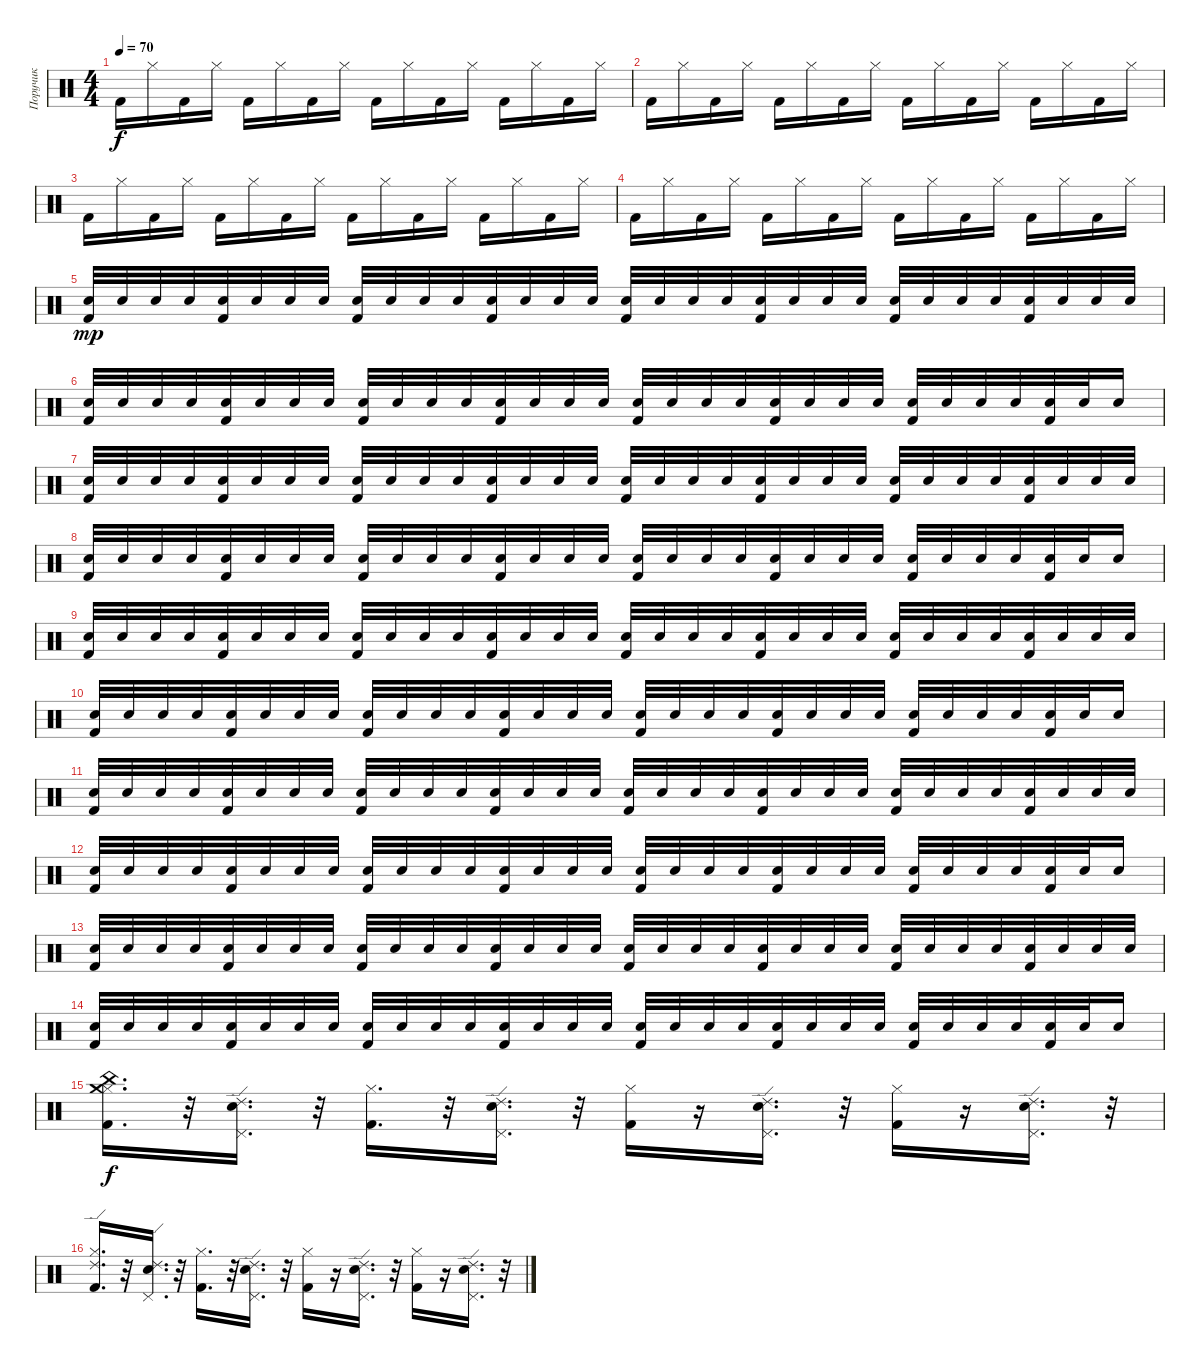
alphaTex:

\track ("Поручик" "Поручик") {instrument percussion}
\staff {score}
\articulation defaults
\ts (4 4)
\tempo 70
\clef neutral
\ks c "Kick (hit) 2".16{dy f} "Hi-Hat (closed)".16 "Kick (hit) 2".16 "Hi-Hat (closed)".16 "Kick (hit) 2".16 "Hi-Hat (closed)".16 "Kick (hit) 2".16 "Hi-Hat (closed)".16 "Kick (hit) 2".16 "Hi-Hat (closed)".16 "Kick (hit) 2".16 "Hi-Hat (closed)".16 "Kick (hit) 2".16 "Hi-Hat (closed)".16 "Kick (hit) 2".16 "Hi-Hat (closed)".16
|
"Kick (hit) 2".16 "Hi-Hat (closed)".16 "Kick (hit) 2".16 "Hi-Hat (closed)".16 "Kick (hit) 2".16 "Hi-Hat (closed)".16 "Kick (hit) 2".16 "Hi-Hat (closed)".16 "Kick (hit) 2".16 "Hi-Hat (closed)".16 "Kick (hit) 2".16 "Hi-Hat (closed)".16 "Kick (hit) 2".16 "Hi-Hat (closed)".16 "Kick (hit) 2".16 "Hi-Hat (closed)".16 |
"Kick (hit) 2".16 "Hi-Hat (closed)".16 "Kick (hit) 2".16 "Hi-Hat (closed)".16 "Kick (hit) 2".16 "Hi-Hat (closed)".16 "Kick (hit) 2".16 "Hi-Hat (closed)".16 "Kick (hit) 2".16 "Hi-Hat (closed)".16 "Kick (hit) 2".16 "Hi-Hat (closed)".16 "Kick (hit) 2".16 "Hi-Hat (closed)".16 "Kick (hit) 2".16 "Hi-Hat (closed)".16 |
"Kick (hit) 2".16 "Hi-Hat (closed)".16 "Kick (hit) 2".16 "Hi-Hat (closed)".16 "Kick (hit) 2".16 "Hi-Hat (closed)".16 "Kick (hit) 2".16 "Hi-Hat (closed)".16 "Kick (hit) 2".16 "Hi-Hat (closed)".16 "Kick (hit) 2".16 "Hi-Hat (closed)".16 "Kick (hit) 2".16 "Hi-Hat (closed)".16 "Kick (hit) 2".16 "Hi-Hat (closed)".16 |
("Electric Snare (hit)" "Kick (hit) 2").32{dy mp} "Electric Snare (hit)".32 "Electric Snare (hit)".32 "Electric Snare (hit)".32 ("Electric Snare (hit)" "Kick (hit) 2").32 "Electric Snare (hit)".32 "Electric Snare (hit)".32 "Electric Snare (hit)".32 ("Electric Snare (hit)" "Kick (hit) 2").32 "Electric Snare (hit)".32 "Electric Snare (hit)".32 "Electric Snare (hit)".32 ("Electric Snare (hit)" "Kick (hit) 2").32 "Electric Snare (hit)".32 "Electric Snare (hit)".32 "Electric Snare (hit)".32 ("Electric Snare (hit)" "Kick (hit) 2").32 "Electric Snare (hit)".32 "Electric Snare (hit)".32 "Electric Snare (hit)".32 ("Electric Snare (hit)" "Kick (hit) 2").32 "Electric Snare (hit)".32 "Electric Snare (hit)".32 "Electric Snare (hit)".32 ("Electric Snare (hit)" "Kick (hit) 2").32 "Electric Snare (hit)".32 "Electric Snare (hit)".32 "Electric Snare (hit)".32 ("Electric Snare (hit)" "Kick (hit) 2").32 "Electric Snare (hit)".32 "Electric Snare (hit)".32 "Electric Snare (hit)".32 |
("Electric Snare (hit)" "Kick (hit) 2").32 "Electric Snare (hit)".32 "Electric Snare (hit)".32 "Electric Snare (hit)".32 ("Electric Snare (hit)" "Kick (hit) 2").32 "Electric Snare (hit)".32 "Electric Snare (hit)".32 "Electric Snare (hit)".32 ("Electric Snare (hit)" "Kick (hit) 2").32 "Electric Snare (hit)".32 "Electric Snare (hit)".32 "Electric Snare (hit)".32 ("Electric Snare (hit)" "Kick (hit) 2").32 "Electric Snare (hit)".32 "Electric Snare (hit)".32 "Electric Snare (hit)".32 ("Electric Snare (hit)" "Kick (hit) 2").32 "Electric Snare (hit)".32 "Electric Snare (hit)".32 "Electric Snare (hit)".32 ("Electric Snare (hit)" "Kick (hit) 2").32 "Electric Snare (hit)".32 "Electric Snare (hit)".32 "Electric Snare (hit)".32 ("Electric Snare (hit)" "Kick (hit) 2").32 "Electric Snare (hit)".32 "Electric Snare (hit)".32 "Electric Snare (hit)".32 ("Electric Snare (hit)" "Kick (hit) 2").32 "Electric Snare (hit)".32 "Electric Snare (hit)".16 |
("Electric Snare (hit)" "Kick (hit) 2").32 "Electric Snare (hit)".32 "Electric Snare (hit)".32 "Electric Snare (hit)".32 ("Electric Snare (hit)" "Kick (hit) 2").32 "Electric Snare (hit)".32 "Electric Snare (hit)".32 "Electric Snare (hit)".32 ("Electric Snare (hit)" "Kick (hit) 2").32 "Electric Snare (hit)".32 "Electric Snare (hit)".32 "Electric Snare (hit)".32 ("Electric Snare (hit)" "Kick (hit) 2").32 "Electric Snare (hit)".32 "Electric Snare (hit)".32 "Electric Snare (hit)".32 ("Electric Snare (hit)" "Kick (hit) 2").32 "Electric Snare (hit)".32 "Electric Snare (hit)".32 "Electric Snare (hit)".32 ("Electric Snare (hit)" "Kick (hit) 2").32 "Electric Snare (hit)".32 "Electric Snare (hit)".32 "Electric Snare (hit)".32 ("Electric Snare (hit)" "Kick (hit) 2").32 "Electric Snare (hit)".32 "Electric Snare (hit)".32 "Electric Snare (hit)".32 ("Electric Snare (hit)" "Kick (hit) 2").32 "Electric Snare (hit)".32 "Electric Snare (hit)".32 "Electric Snare (hit)".32 |
("Electric Snare (hit)" "Kick (hit) 2").32 "Electric Snare (hit)".32 "Electric Snare (hit)".32 "Electric Snare (hit)".32 ("Electric Snare (hit)" "Kick (hit) 2").32 "Electric Snare (hit)".32 "Electric Snare (hit)".32 "Electric Snare (hit)".32 ("Electric Snare (hit)" "Kick (hit) 2").32 "Electric Snare (hit)".32 "Electric Snare (hit)".32 "Electric Snare (hit)".32 ("Electric Snare (hit)" "Kick (hit) 2").32 "Electric Snare (hit)".32 "Electric Snare (hit)".32 "Electric Snare (hit)".32 ("Electric Snare (hit)" "Kick (hit) 2").32 "Electric Snare (hit)".32 "Electric Snare (hit)".32 "Electric Snare (hit)".32 ("Electric Snare (hit)" "Kick (hit) 2").32 "Electric Snare (hit)".32 "Electric Snare (hit)".32 "Electric Snare (hit)".32 ("Electric Snare (hit)" "Kick (hit) 2").32 "Electric Snare (hit)".32 "Electric Snare (hit)".32 "Electric Snare (hit)".32 ("Electric Snare (hit)" "Kick (hit) 2").32 "Electric Snare (hit)".32 "Electric Snare (hit)".16 |
("Electric Snare (hit)" "Kick (hit) 2").32 "Electric Snare (hit)".32 "Electric Snare (hit)".32 "Electric Snare (hit)".32 ("Electric Snare (hit)" "Kick (hit) 2").32 "Electric Snare (hit)".32 "Electric Snare (hit)".32 "Electric Snare (hit)".32 ("Electric Snare (hit)" "Kick (hit) 2").32 "Electric Snare (hit)".32 "Electric Snare (hit)".32 "Electric Snare (hit)".32 ("Electric Snare (hit)" "Kick (hit) 2").32 "Electric Snare (hit)".32 "Electric Snare (hit)".32 "Electric Snare (hit)".32 ("Electric Snare (hit)" "Kick (hit) 2").32 "Electric Snare (hit)".32 "Electric Snare (hit)".32 "Electric Snare (hit)".32 ("Electric Snare (hit)" "Kick (hit) 2").32 "Electric Snare (hit)".32 "Electric Snare (hit)".32 "Electric Snare (hit)".32 ("Electric Snare (hit)" "Kick (hit) 2").32 "Electric Snare (hit)".32 "Electric Snare (hit)".32 "Electric Snare (hit)".32 ("Electric Snare (hit)" "Kick (hit) 2").32 "Electric Snare (hit)".32 "Electric Snare (hit)".32 "Electric Snare (hit)".32 |
("Electric Snare (hit)" "Kick (hit) 2").32 "Electric Snare (hit)".32 "Electric Snare (hit)".32 "Electric Snare (hit)".32 ("Electric Snare (hit)" "Kick (hit) 2").32 "Electric Snare (hit)".32 "Electric Snare (hit)".32 "Electric Snare (hit)".32 ("Electric Snare (hit)" "Kick (hit) 2").32 "Electric Snare (hit)".32 "Electric Snare (hit)".32 "Electric Snare (hit)".32 ("Electric Snare (hit)" "Kick (hit) 2").32 "Electric Snare (hit)".32 "Electric Snare (hit)".32 "Electric Snare (hit)".32 ("Electric Snare (hit)" "Kick (hit) 2").32 "Electric Snare (hit)".32 "Electric Snare (hit)".32 "Electric Snare (hit)".32 ("Electric Snare (hit)" "Kick (hit) 2").32 "Electric Snare (hit)".32 "Electric Snare (hit)".32 "Electric Snare (hit)".32 ("Electric Snare (hit)" "Kick (hit) 2").32 "Electric Snare (hit)".32 "Electric Snare (hit)".32 "Electric Snare (hit)".32 ("Electric Snare (hit)" "Kick (hit) 2").32 "Electric Snare (hit)".32 "Electric Snare (hit)".16 |
("Electric Snare (hit)" "Kick (hit) 2").32 "Electric Snare (hit)".32 "Electric Snare (hit)".32 "Electric Snare (hit)".32 ("Electric Snare (hit)" "Kick (hit) 2").32 "Electric Snare (hit)".32 "Electric Snare (hit)".32 "Electric Snare (hit)".32 ("Electric Snare (hit)" "Kick (hit) 2").32 "Electric Snare (hit)".32 "Electric Snare (hit)".32 "Electric Snare (hit)".32 ("Electric Snare (hit)" "Kick (hit) 2").32 "Electric Snare (hit)".32 "Electric Snare (hit)".32 "Electric Snare (hit)".32 ("Electric Snare (hit)" "Kick (hit) 2").32 "Electric Snare (hit)".32 "Electric Snare (hit)".32 "Electric Snare (hit)".32 ("Electric Snare (hit)" "Kick (hit) 2").32 "Electric Snare (hit)".32 "Electric Snare (hit)".32 "Electric Snare (hit)".32 ("Electric Snare (hit)" "Kick (hit) 2").32 "Electric Snare (hit)".32 "Electric Snare (hit)".32 "Electric Snare (hit)".32 ("Electric Snare (hit)" "Kick (hit) 2").32 "Electric Snare (hit)".32 "Electric Snare (hit)".32 "Electric Snare (hit)".32 |
("Electric Snare (hit)" "Kick (hit) 2").32 "Electric Snare (hit)".32 "Electric Snare (hit)".32 "Electric Snare (hit)".32 ("Electric Snare (hit)" "Kick (hit) 2").32 "Electric Snare (hit)".32 "Electric Snare (hit)".32 "Electric Snare (hit)".32 ("Electric Snare (hit)" "Kick (hit) 2").32 "Electric Snare (hit)".32 "Electric Snare (hit)".32 "Electric Snare (hit)".32 ("Electric Snare (hit)" "Kick (hit) 2").32 "Electric Snare (hit)".32 "Electric Snare (hit)".32 "Electric Snare (hit)".32 ("Electric Snare (hit)" "Kick (hit) 2").32 "Electric Snare (hit)".32 "Electric Snare (hit)".32 "Electric Snare (hit)".32 ("Electric Snare (hit)" "Kick (hit) 2").32 "Electric Snare (hit)".32 "Electric Snare (hit)".32 "Electric Snare (hit)".32 ("Electric Snare (hit)" "Kick (hit) 2").32 "Electric Snare (hit)".32 "Electric Snare (hit)".32 "Electric Snare (hit)".32 ("Electric Snare (hit)" "Kick (hit) 2").32 "Electric Snare (hit)".32 "Electric Snare (hit)".16 |
("Electric Snare (hit)" "Kick (hit) 2").32 "Electric Snare (hit)".32 "Electric Snare (hit)".32 "Electric Snare (hit)".32 ("Electric Snare (hit)" "Kick (hit) 2").32 "Electric Snare (hit)".32 "Electric Snare (hit)".32 "Electric Snare (hit)".32 ("Electric Snare (hit)" "Kick (hit) 2").32 "Electric Snare (hit)".32 "Electric Snare (hit)".32 "Electric Snare (hit)".32 ("Electric Snare (hit)" "Kick (hit) 2").32 "Electric Snare (hit)".32 "Electric Snare (hit)".32 "Electric Snare (hit)".32 ("Electric Snare (hit)" "Kick (hit) 2").32 "Electric Snare (hit)".32 "Electric Snare (hit)".32 "Electric Snare (hit)".32 ("Electric Snare (hit)" "Kick (hit) 2").32 "Electric Snare (hit)".32 "Electric Snare (hit)".32 "Electric Snare (hit)".32 ("Electric Snare (hit)" "Kick (hit) 2").32 "Electric Snare (hit)".32 "Electric Snare (hit)".32 "Electric Snare (hit)".32 ("Electric Snare (hit)" "Kick (hit) 2").32 "Electric Snare (hit)".32 "Electric Snare (hit)".32 "Electric Snare (hit)".32 |
("Electric Snare (hit)" "Kick (hit) 2").32 "Electric Snare (hit)".32 "Electric Snare (hit)".32 "Electric Snare (hit)".32 ("Electric Snare (hit)" "Kick (hit) 2").32 "Electric Snare (hit)".32 "Electric Snare (hit)".32 "Electric Snare (hit)".32 ("Electric Snare (hit)" "Kick (hit) 2").32 "Electric Snare (hit)".32 "Electric Snare (hit)".32 "Electric Snare (hit)".32 ("Electric Snare (hit)" "Kick (hit) 2").32 "Electric Snare (hit)".32 "Electric Snare (hit)".32 "Electric Snare (hit)".32 ("Electric Snare (hit)" "Kick (hit) 2").32 "Electric Snare (hit)".32 "Electric Snare (hit)".32 "Electric Snare (hit)".32 ("Electric Snare (hit)" "Kick (hit) 2").32 "Electric Snare (hit)".32 "Electric Snare (hit)".32 "Electric Snare (hit)".32 ("Electric Snare (hit)" "Kick (hit) 2").32 "Electric Snare (hit)".32 "Electric Snare (hit)".32 "Electric Snare (hit)".32 ("Electric Snare (hit)" "Kick (hit) 2").32 "Electric Snare (hit)".32 "Electric Snare (hit)".16 |
("Kick (hit) 2" "Hi-Hat (closed)" "Crash medium (hit)" "China (hit)").16{d dy f} r.32 ("Electric Snare (hit)" "Pedal Hi-Hat (hit)" "Ride (edge) 2").16{d} r.32 ("Kick (hit) 2" "Hi-Hat (closed)").16{d} r.32 ("Electric Snare (hit)" "Pedal Hi-Hat (hit)" "Ride (edge) 2").16{d} r.32 ("Hi-Hat (closed)" "Kick (hit) 2").16 r.16 ("Ride (edge) 2" "Pedal Hi-Hat (hit)" "Electric Snare (hit)").16{d} r.32 ("Hi-Hat (closed)" "Kick (hit) 2").16 r.16 ("Ride (edge) 2" "Pedal Hi-Hat (hit)" "Electric Snare (hit)").16{d} r.32 |
("Ride (edge) 2" "Kick (hit) 2" "Hi-Hat (closed)").16{d} r.32 ("Electric Snare (hit)" "Pedal Hi-Hat (hit)" "Ride (edge) 2").16{d} r.32 ("Kick (hit) 2" "Hi-Hat (closed)").16{d} r.32 ("Electric Snare (hit)" "Pedal Hi-Hat (hit)" "Ride (edge) 2").16{d} r.32 ("Hi-Hat (closed)" "Kick (hit) 2").16 r.16 ("Ride (edge) 2" "Pedal Hi-Hat (hit)" "Electric Snare (hit)").16{d} r.32 ("Hi-Hat (closed)" "Kick (hit) 2").16 r.16 ("Ride (edge) 2" "Pedal Hi-Hat (hit)" "Electric Snare (hit)").16{d} r.32
